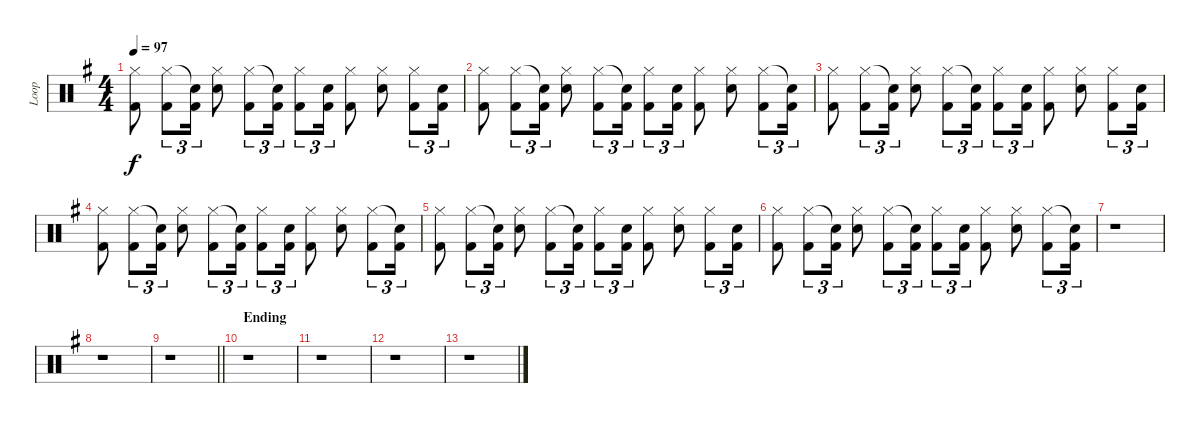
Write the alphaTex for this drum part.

\track ("Loop" "Loop") {instrument percussion}
\staff {score}
\articulation defaults
\ts (4 4)
\tempo 97
\clef neutral
\ks g
("Hi-Hat (closed)" "Kick (hit) 2").8{dy f} ("Hi-Hat (closed)" "Kick (hit) 2").8{tu (3 2)} ("Snare (hit)"{t} "Kick (hit) 2").16{tu (3 2)} ("Hi-Hat (closed)" "Electric Snare (hit)").8 ("Hi-Hat (closed)" "Kick (hit) 2").8{tu (3 2)} ("Snare (hit)"{t} "Kick (hit) 2").16{tu (3 2)} ("Hi-Hat (closed)" "Kick (hit) 2").8{tu (3 2)} ("Electric Snare (hit)" "Kick (hit) 2").16{tu (3 2)} ("Hi-Hat (closed)" "Kick (hit) 2").8 ("Hi-Hat (closed)" "Electric Snare (hit)").8 ("Hi-Hat (closed)" "Kick (hit) 2").8{tu (3 2)} ("Electric Snare (hit)" "Kick (hit) 2").16{tu (3 2)} |
("Hi-Hat (closed)" "Kick (hit) 2").8 ("Hi-Hat (closed)" "Kick (hit) 2").8{tu (3 2)} ("Snare (hit)"{t} "Kick (hit) 2").16{tu (3 2)} ("Hi-Hat (closed)" "Electric Snare (hit)").8 ("Hi-Hat (closed)" "Kick (hit) 2").8{tu (3 2)} ("Snare (hit)"{t} "Kick (hit) 2").16{tu (3 2)} ("Hi-Hat (closed)" "Kick (hit) 2").8{tu (3 2)} ("Electric Snare (hit)" "Kick (hit) 2").16{tu (3 2)} ("Hi-Hat (closed)" "Kick (hit) 2").8 ("Hi-Hat (closed)" "Electric Snare (hit)").8 ("Hi-Hat (closed)" "Kick (hit) 2").8{tu (3 2)} ("Snare (hit)"{t} "Kick (hit) 2").16{tu (3 2)} |
("Hi-Hat (closed)" "Kick (hit) 2").8 ("Hi-Hat (closed)" "Kick (hit) 2").8{tu (3 2)} ("Snare (hit)"{t} "Kick (hit) 2").16{tu (3 2)} ("Hi-Hat (closed)" "Electric Snare (hit)").8 ("Hi-Hat (closed)" "Kick (hit) 2").8{tu (3 2)} ("Snare (hit)"{t} "Kick (hit) 2").16{tu (3 2)} ("Hi-Hat (closed)" "Kick (hit) 2").8{tu (3 2)} ("Electric Snare (hit)" "Kick (hit) 2").16{tu (3 2)} ("Hi-Hat (closed)" "Kick (hit) 2").8 ("Hi-Hat (closed)" "Electric Snare (hit)").8 ("Hi-Hat (closed)" "Kick (hit) 2").8{tu (3 2)} ("Electric Snare (hit)" "Kick (hit) 2").16{tu (3 2)} |
("Hi-Hat (closed)" "Kick (hit) 2").8 ("Hi-Hat (closed)" "Kick (hit) 2").8{tu (3 2)} ("Snare (hit)"{t} "Kick (hit) 2").16{tu (3 2)} ("Hi-Hat (closed)" "Electric Snare (hit)").8 ("Hi-Hat (closed)" "Kick (hit) 2").8{tu (3 2)} ("Snare (hit)"{t} "Kick (hit) 2").16{tu (3 2)} ("Hi-Hat (closed)" "Kick (hit) 2").8{tu (3 2)} ("Electric Snare (hit)" "Kick (hit) 2").16{tu (3 2)} ("Hi-Hat (closed)" "Kick (hit) 2").8 ("Hi-Hat (closed)" "Electric Snare (hit)").8 ("Hi-Hat (closed)" "Kick (hit) 2").8{tu (3 2)} ("Snare (hit)"{t} "Kick (hit) 2").16{tu (3 2)} |
("Hi-Hat (closed)" "Kick (hit) 2").8 ("Hi-Hat (closed)" "Kick (hit) 2").8{tu (3 2)} ("Snare (hit)"{t} "Kick (hit) 2").16{tu (3 2)} ("Hi-Hat (closed)" "Electric Snare (hit)").8 ("Hi-Hat (closed)" "Kick (hit) 2").8{tu (3 2)} ("Snare (hit)"{t} "Kick (hit) 2").16{tu (3 2)} ("Hi-Hat (closed)" "Kick (hit) 2").8{tu (3 2)} ("Electric Snare (hit)" "Kick (hit) 2").16{tu (3 2)} ("Hi-Hat (closed)" "Kick (hit) 2").8 ("Hi-Hat (closed)" "Electric Snare (hit)").8 ("Hi-Hat (closed)" "Kick (hit) 2").8{tu (3 2)} ("Electric Snare (hit)" "Kick (hit) 2").16{tu (3 2)} |
("Hi-Hat (closed)" "Kick (hit) 2").8 ("Hi-Hat (closed)" "Kick (hit) 2").8{tu (3 2)} ("Snare (hit)"{t} "Kick (hit) 2").16{tu (3 2)} ("Hi-Hat (closed)" "Electric Snare (hit)").8 ("Hi-Hat (closed)" "Kick (hit) 2").8{tu (3 2)} ("Snare (hit)"{t} "Kick (hit) 2").16{tu (3 2)} ("Hi-Hat (closed)" "Kick (hit) 2").8{tu (3 2)} ("Electric Snare (hit)" "Kick (hit) 2").16{tu (3 2)} ("Hi-Hat (closed)" "Kick (hit) 2").8 ("Hi-Hat (closed)" "Electric Snare (hit)").8 ("Hi-Hat (closed)" "Kick (hit) 2").8{tu (3 2)} ("Snare (hit)"{t} "Kick (hit) 2").16{tu (3 2)} |
r.1 |
r.1 |
\barLineRight lightlight
r.1 |
\section ("" "Ending")
r.1 |
r.1 |
r.1 |
r.1
